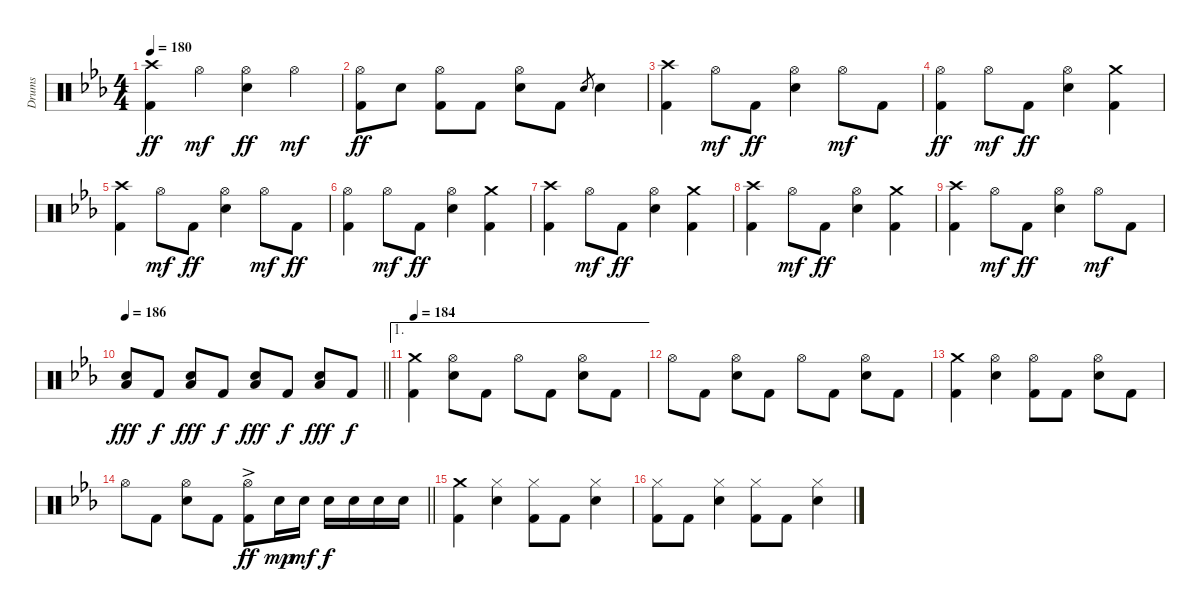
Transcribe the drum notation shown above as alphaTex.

\track ("Drums" "Drums") {instrument percussion}
\staff {score}
\articulation defaults
\ts (4 4)
\tempo 180
\clef neutral
\ks eb
("Crash high (hit)" "Kick (hit) 2").4{dy ff} "Hi-Hat (open)".4{dy mf} ("Hi-Hat (open)" "Electric Snare (hit)").4{dy ff} "Hi-Hat (open)".4{dy mf} |
("Hi-Hat (open)" "Kick (hit) 2").8{dy ff} "Electric Snare (hit)".8 ("Hi-Hat (open)" "Kick (hit) 2").8 "Kick (hit) 2".8 ("Hi-Hat (open)" "Electric Snare (hit)").8 "Kick (hit) 2".8 "Electric Snare (hit)".8{gr} "Electric Snare (hit)".4 |
("Crash high (hit)" "Kick (hit) 2").4 "Hi-Hat (open)".8{dy mf} "Kick (hit) 2".8{dy ff} ("Hi-Hat (open)" "Electric Snare (hit)").4 "Hi-Hat (open)".8{dy mf} "Kick (hit) 2".8 |
("Hi-Hat (open)" "Kick (hit) 2").4{dy ff} "Hi-Hat (open)".8{dy mf} "Kick (hit) 2".8{dy ff} ("Hi-Hat (open)" "Electric Snare (hit)").4 ("Crash medium (hit)" "Kick (hit) 2").4 |
("Crash high (hit)" "Kick (hit) 2").4 "Hi-Hat (open)".8{dy mf} "Kick (hit) 2".8{dy ff} ("Hi-Hat (open)" "Electric Snare (hit)").4 "Hi-Hat (open)".8{dy mf} "Kick (hit) 2".8{dy ff} |
("Hi-Hat (open)" "Kick (hit) 2").4 "Hi-Hat (open)".8{dy mf} "Kick (hit) 2".8{dy ff} ("Hi-Hat (open)" "Electric Snare (hit)").4 ("Crash medium (hit)" "Kick (hit) 2").4 |
("Crash high (hit)" "Kick (hit) 2").4 "Hi-Hat (open)".8{dy mf} "Kick (hit) 2".8{dy ff} ("Hi-Hat (open)" "Electric Snare (hit)").4 ("Crash medium (hit)" "Kick (hit) 2").4 |
("Crash high (hit)" "Kick (hit) 2").4 "Hi-Hat (open)".8{dy mf} "Kick (hit) 2".8{dy ff} ("Hi-Hat (open)" "Electric Snare (hit)").4 ("Crash medium (hit)" "Kick (hit) 2").4 |
("Crash high (hit)" "Kick (hit) 2").4 "Hi-Hat (open)".8{dy mf} "Kick (hit) 2".8{dy ff} ("Hi-Hat (open)" "Electric Snare (hit)").4 "Hi-Hat (open)".8{dy mf} "Kick (hit) 2".8 |
\tempo 186
\barLineRight lightlight
("Electric Snare (hit)" "Low Floor Tom (hit)").8{dy fff} "Kick (hit) 2".8{dy f} ("Electric Snare (hit)" "Low Floor Tom (hit)").8{dy fff} "Kick (hit) 2".8{dy f} ("Electric Snare (hit)" "Low Floor Tom (hit)").8{dy fff} "Kick (hit) 2".8{dy f} ("Electric Snare (hit)" "Low Floor Tom (hit)").8{dy fff} "Kick (hit) 2".8{dy f} |
\ae 1
\tempo 184
("Crash medium (hit)" "Kick (hit) 2").4 ("Hi-Hat (open)" "Electric Snare (hit)").8 "Kick (hit) 2".8 "Hi-Hat (open)".8 "Kick (hit) 2".8 ("Hi-Hat (open)" "Electric Snare (hit)").8 "Kick (hit) 2".8 |
"Hi-Hat (open)".8 "Kick (hit) 2".8 ("Hi-Hat (open)" "Electric Snare (hit)").8 "Kick (hit) 2".8 "Hi-Hat (open)".8 "Kick (hit) 2".8 ("Hi-Hat (open)" "Electric Snare (hit)").8 "Kick (hit) 2".8 |
("Crash medium (hit)" "Kick (hit) 2").4 ("Hi-Hat (open)" "Electric Snare (hit)").4 ("Hi-Hat (open)" "Kick (hit) 2").8 "Kick (hit) 2".8 ("Hi-Hat (open)" "Electric Snare (hit)").8 "Kick (hit) 2".8 |
\barLineRight lightlight "Hi-Hat (open)".8 "Kick (hit) 2".8
("Hi-Hat (open)" "Electric Snare (hit)").8 "Kick (hit) 2".8 ("Hi-Hat (open)"{ac} "Kick (hit) 2").8{dy ff} "Electric Snare (hit)".16{dy mp} "Electric Snare (hit)".16{dy mf} "Electric Snare (hit)".16{dy f} "Electric Snare (hit)".16 "Electric Snare (hit)".16 "Electric Snare (hit)".16 |
("Crash medium (hit)" "Kick (hit) 2").4 ("Hi-Hat (closed)" "Electric Snare (hit)").4 ("Hi-Hat (closed)" "Kick (hit) 2").8 "Kick (hit) 2".8 ("Hi-Hat (closed)" "Electric Snare (hit)").4 |
("Hi-Hat (closed)" "Kick (hit) 2").8 "Kick (hit) 2".8 ("Hi-Hat (closed)" "Electric Snare (hit)").4 ("Hi-Hat (closed)" "Kick (hit) 2").8 "Kick (hit) 2".8 ("Hi-Hat (closed)" "Electric Snare (hit)").4
